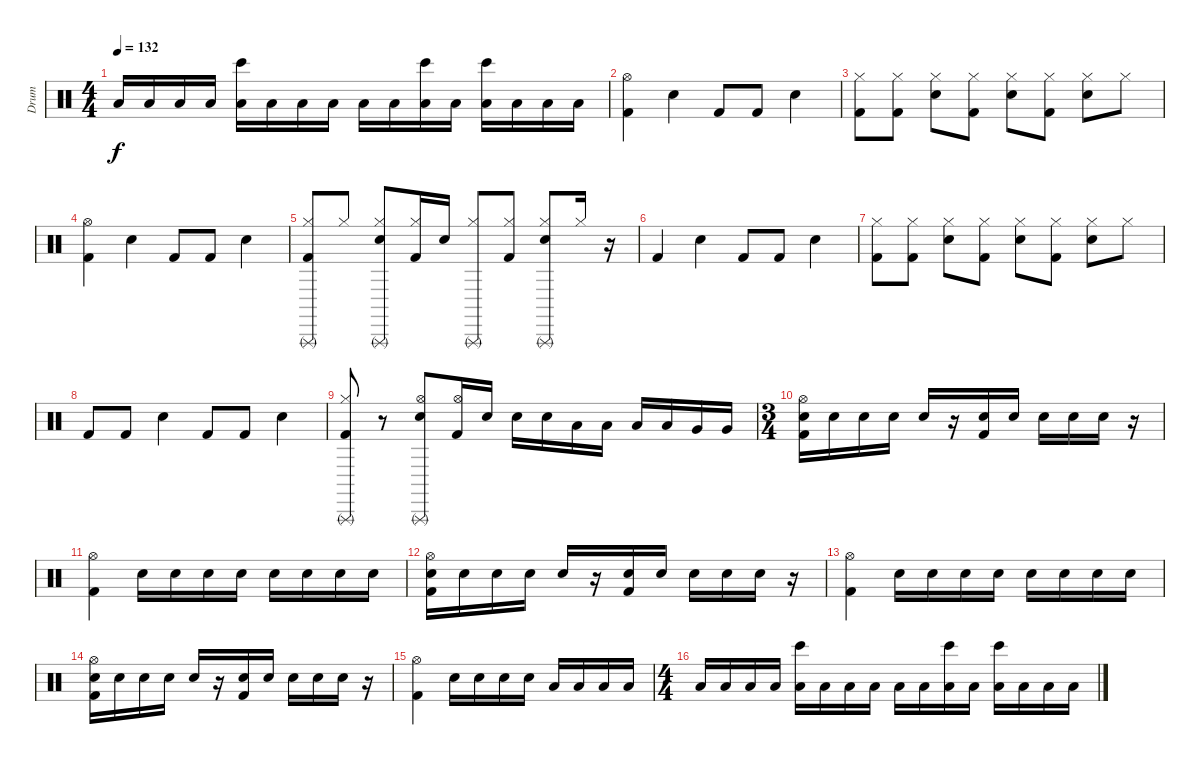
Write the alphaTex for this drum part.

\track ("Drum" "Drum") {instrument percussion}
\staff {score}
\articulation defaults
\ts (4 4)
\tempo 132
\clef neutral
\ks c "Low Tom (hit)".16{dy f} "Low Tom (hit)".16 "Low Tom (hit)".16 "Low Tom (hit)".16
("Bongo High (hit)" "Low Tom (hit)").16 "Low Tom (hit)".16 "Low Tom (hit)".16 "Low Tom (hit)".16 "Low Tom (hit)".16 "Low Tom (hit)".16 ("Bongo High (hit)" "Low Tom (hit)").16 "Low Tom (hit)".16 ("Bongo High (hit)" "Low Tom (hit)").16 "Low Tom (hit)".16 "Low Tom (hit)".16 "Low Tom (hit)".16 |
("Hi-Hat (open)" "Kick (hit) 2").4 "Snare (hit) 2".4 "Kick (hit) 2".8 "Kick (hit) 2".8 "Snare (hit) 2".4 |
("Hi-Hat (closed)" "Kick (hit) 2").8 ("Hi-Hat (closed)" "Kick (hit) 2").8 ("Hi-Hat (closed)" "Snare (hit) 2").8 ("Hi-Hat (closed)" "Kick (hit) 2").8 ("Hi-Hat (closed)" "Snare (hit) 2").8 ("Hi-Hat (closed)" "Kick (hit) 2").8 ("Hi-Hat (closed)" "Snare (hit) 2").8 "Hi-Hat (closed)".8 |
("Hi-Hat (open)" "Kick (hit) 2").4 "Snare (hit) 2".4 "Kick (hit) 2".8 "Kick (hit) 2".8 "Snare (hit) 2".4 |
("Triangle (rnute)" "Hi-Hat (closed)" "Kick (hit) 2").8 "Hi-Hat (closed)".8 ("Triangle (rnute)" "Hi-Hat (closed)" "Snare (hit) 2").8 ("Hi-Hat (closed)" "Kick (hit) 2").16 "Snare (hit) 2".16 ("Triangle (rnute)" "Hi-Hat (closed)").8 ("Hi-Hat (closed)" "Kick (hit) 2").8 ("Triangle (rnute)" "Hi-Hat (closed)" "Snare (hit) 2").8 "Hi-Hat (closed)".16 r.16 |
"Kick (hit) 2".4 "Snare (hit) 2".4 "Kick (hit) 2".8 "Kick (hit) 2".8 "Snare (hit) 2".4 |
("Hi-Hat (closed)" "Kick (hit) 2").8 ("Hi-Hat (closed)" "Kick (hit) 2").8 ("Hi-Hat (closed)" "Snare (hit) 2").8 ("Hi-Hat (closed)" "Kick (hit) 2").8 ("Hi-Hat (closed)" "Snare (hit) 2").8 ("Hi-Hat (closed)" "Kick (hit) 2").8 ("Hi-Hat (closed)" "Snare (hit) 2").8 "Hi-Hat (closed)".8 |
"Kick (hit) 2".8 "Kick (hit) 2".8 "Snare (hit) 2".4 "Kick (hit) 2".8 "Kick (hit) 2".8 "Snare (hit) 2".4 |
("Triangle (rnute)" "Hi-Hat (closed)" "Kick (hit) 2").8{volume 8} r.8 ("Triangle (rnute)" "Hi-Hat (open)" "Snare (hit) 2").8 ("Hi-Hat (open)" "Kick (hit) 2").16 "Snare (hit) 2".16 "Snare (hit) 2".16 "Snare (hit) 2".16 "Low Floor Tom (hit)".16 "Low Floor Tom (hit)".16 "Low Floor Tom (hit)".16 "Low Floor Tom (hit)".16 "Very Low Tom (hit)".16 "Very Low Tom (hit)".16 |
\ts (3 4)
("Hi-Hat (open)" "Snare (hit) 2" "Kick (hit) 2").16 "Snare (hit) 2".16 "Snare (hit) 2".16 "Snare (hit) 2".16 "Electric Snare (hit)".16 r.16 ("Snare (hit) 2" "Kick (hit) 2").16 "Snare (hit) 2".16 "Snare (hit) 2".16 "Snare (hit) 2".16 "Electric Snare (hit)".16 r.16 |
("Hi-Hat (open)" "Kick (hit) 2").4 "Electric Snare (hit)".16 "Electric Snare (hit)".16 "Snare (hit) 2".16 "Snare (hit) 2".16 "Snare (hit) 2".16 "Snare (hit) 2".16 "Snare (hit) 2".16 "Snare (hit) 2".16 |
("Hi-Hat (open)" "Snare (hit) 2" "Kick (hit) 2").16 "Snare (hit) 2".16 "Snare (hit) 2".16 "Snare (hit) 2".16 "Electric Snare (hit)".16 r.16 ("Snare (hit) 2" "Kick (hit) 2").16 "Snare (hit) 2".16 "Snare (hit) 2".16 "Snare (hit) 2".16 "Electric Snare (hit)".16 r.16 |
("Hi-Hat (open)" "Kick (hit) 2").4 "Electric Snare (hit)".16 "Electric Snare (hit)".16 "Snare (hit) 2".16 "Snare (hit) 2".16 "Snare (hit) 2".16 "Snare (hit) 2".16 "Snare (hit) 2".16 "Snare (hit) 2".16 |
("Hi-Hat (open)" "Snare (hit) 2" "Kick (hit) 2").16 "Snare (hit) 2".16 "Snare (hit) 2".16 "Snare (hit) 2".16 "Electric Snare (hit)".16 r.16 ("Snare (hit) 2" "Kick (hit) 2").16 "Snare (hit) 2".16 "Snare (hit) 2".16 "Snare (hit) 2".16 "Electric Snare (hit)".16 r.16 |
("Hi-Hat (open)" "Kick (hit) 2").4 "Snare (hit) 2".16 "Snare (hit) 2".16 "Snare (hit) 2".16 "Snare (hit) 2".16 "Low Tom (hit)".16 "Low Tom (hit)".16 "Low Tom (hit)".16 "Low Tom (hit)".16 |
\ts (4 4)
"Low Tom (hit)".16 "Low Tom (hit)".16 "Low Tom (hit)".16 "Low Tom (hit)".16 ("Bongo High (hit)" "Low Tom (hit)").16 "Low Tom (hit)".16 "Low Tom (hit)".16 "Low Tom (hit)".16 "Low Tom (hit)".16 "Low Tom (hit)".16 ("Bongo High (hit)" "Low Tom (hit)").16 "Low Tom (hit)".16 ("Bongo High (hit)" "Low Tom (hit)").16 "Low Tom (hit)".16 "Low Tom (hit)".16 "Low Tom (hit)".16
